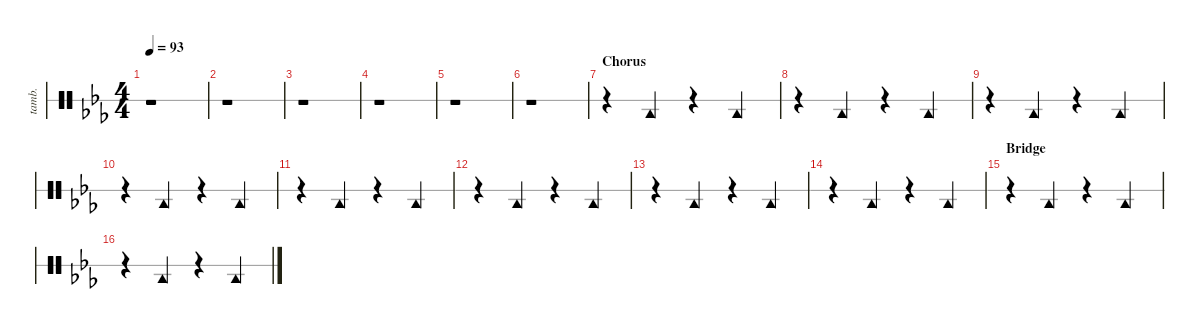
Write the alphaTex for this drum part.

\defaultSystemsLayout 4
\hideDynamics
\bracketExtendMode nobrackets
\otherSystemsTrackNameOrientation horizontal
\track ("Tambourine" "tamb.") {instrument percussion}
\staff {score 1}
\articulation defaults
\ts (4 4)
\tempo 93
\clef neutral
\ks cminor
r.1{dy p} |
r.1 |
r.1 |
r.1 |
r.1 |
r.1 |
\section ("" "Chorus")
r.4 "Tambourine (hit)"{acc forcenatural}.4 r.4 "Tambourine (hit)"{acc forcenatural}.4 |
r.4 "Tambourine (hit)"{acc forcenatural}.4 r.4 "Tambourine (hit)"{acc forcenatural}.4 |
r.4 "Tambourine (hit)"{acc forcenatural}.4 r.4 "Tambourine (hit)"{acc forcenatural}.4 |
r.4 "Tambourine (hit)"{acc forcenatural}.4 r.4 "Tambourine (hit)"{acc forcenatural}.4 |
r.4 "Tambourine (hit)"{acc forcenatural}.4 r.4 "Tambourine (hit)"{acc forcenatural}.4 |
r.4 "Tambourine (hit)"{acc forcenatural}.4 r.4 "Tambourine (hit)"{acc forcenatural}.4 |
r.4 "Tambourine (hit)"{acc forcenatural}.4 r.4 "Tambourine (hit)"{acc forcenatural}.4 |
r.4 "Tambourine (hit)"{acc forcenatural}.4 r.4 "Tambourine (hit)"{acc forcenatural}.4 |
\section ("" "Bridge")
r.4 "Tambourine (hit)"{acc forcenatural}.4 r.4 "Tambourine (hit)"{acc forcenatural}.4 |
r.4 "Tambourine (hit)"{acc forcenatural}.4 r.4 "Tambourine (hit)"{acc forcenatural}.4
